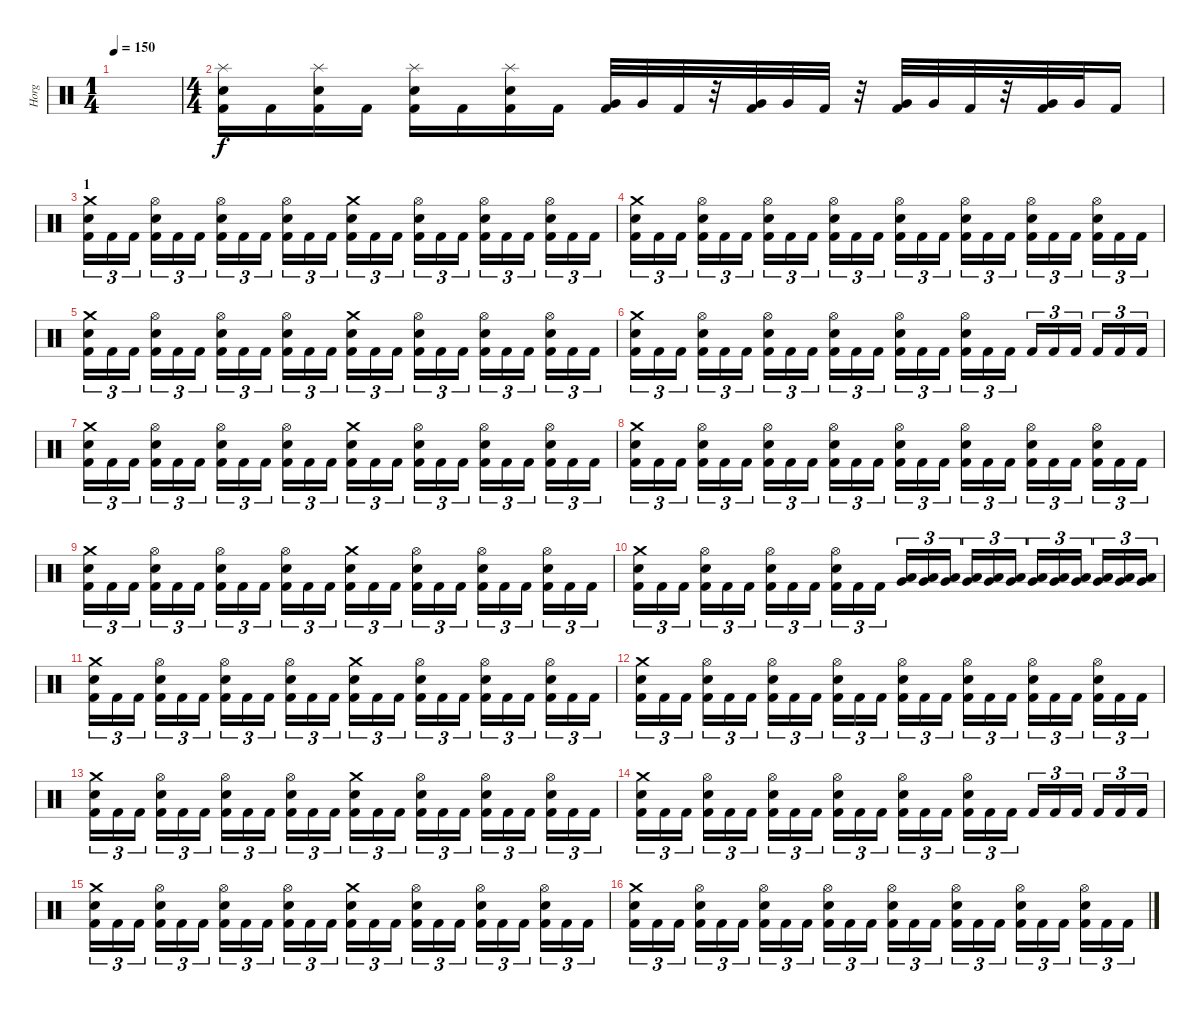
\track ("Horg" "Horg") {instrument percussion}
\staff {score}
\articulation defaults
\ts (1 4)
\tempo 150
\clef neutral
\ks c
|
\ts (4 4)
("Splash (hit)" "Snare (hit) 2" "Kick (hit) 2").16 "Kick (hit) 2".16 ("Splash (hit)" "Snare (hit) 2" "Kick (hit) 2").16 "Kick (hit) 2".16 ("Splash (hit)" "Snare (hit) 2" "Kick (hit) 2").16 "Kick (hit) 2".16 ("Splash (hit)" "Snare (hit) 2" "Kick (hit) 2").16 "Kick (hit) 2".16 ("Very Low Tom (hit)" "Kick (hit) 2").32 "Very Low Tom (hit)".32 "Kick (hit) 2".32 r.32 ("Very Low Tom (hit)" "Kick (hit) 2").32 "Very Low Tom (hit)".32 "Kick (hit) 2".32 r.32 ("Very Low Tom (hit)" "Kick (hit) 2").32 "Very Low Tom (hit)".32 "Kick (hit) 2".32 r.32 ("Very Low Tom (hit)" "Kick (hit) 2").32 "Very Low Tom (hit)".32 "Kick (hit) 2".16 |
\section ("" "1")
("Crash medium (hit)" "Snare (hit) 2" "Kick (hit) 2").16{tu (3 2)} "Kick (hit) 2".16{tu (3 2)} "Kick (hit) 2".16{tu (3 2)} ("Hi-Hat (open)" "Snare (hit) 2" "Kick (hit) 2").16{tu (3 2)} "Kick (hit) 2".16{tu (3 2)} "Kick (hit) 2".16{tu (3 2)} ("Hi-Hat (open)" "Snare (hit) 2" "Kick (hit) 2").16{tu (3 2)} "Kick (hit) 2".16{tu (3 2)} "Kick (hit) 2".16{tu (3 2)} ("Hi-Hat (open)" "Snare (hit) 2" "Kick (hit) 2").16{tu (3 2)} "Kick (hit) 2".16{tu (3 2)} "Kick (hit) 2".16{tu (3 2)} ("Crash medium (hit)" "Snare (hit) 2" "Kick (hit) 2").16{tu (3 2)} "Kick (hit) 2".16{tu (3 2)} "Kick (hit) 2".16{tu (3 2)} ("Hi-Hat (open)" "Snare (hit) 2" "Kick (hit) 2").16{tu (3 2)} "Kick (hit) 2".16{tu (3 2)} "Kick (hit) 2".16{tu (3 2)} ("Hi-Hat (open)" "Snare (hit) 2" "Kick (hit) 2").16{tu (3 2)} "Kick (hit) 2".16{tu (3 2)} "Kick (hit) 2".16{tu (3 2)} ("Hi-Hat (open)" "Snare (hit) 2" "Kick (hit) 2").16{tu (3 2)} "Kick (hit) 2".16{tu (3 2)} "Kick (hit) 2".16{tu (3 2)} |
("Crash medium (hit)" "Snare (hit) 2" "Kick (hit) 2").16{tu (3 2)} "Kick (hit) 2".16{tu (3 2)} "Kick (hit) 2".16{tu (3 2)} ("Hi-Hat (open)" "Snare (hit) 2" "Kick (hit) 2").16{tu (3 2)} "Kick (hit) 2".16{tu (3 2)} "Kick (hit) 2".16{tu (3 2)} ("Hi-Hat (open)" "Snare (hit) 2" "Kick (hit) 2").16{tu (3 2)} "Kick (hit) 2".16{tu (3 2)} "Kick (hit) 2".16{tu (3 2)} ("Hi-Hat (open)" "Snare (hit) 2" "Kick (hit) 2").16{tu (3 2)} "Kick (hit) 2".16{tu (3 2)} "Kick (hit) 2".16{tu (3 2)} ("Hi-Hat (open)" "Snare (hit) 2" "Kick (hit) 2").16{tu (3 2)} "Kick (hit) 2".16{tu (3 2)} "Kick (hit) 2".16{tu (3 2)} ("Hi-Hat (open)" "Snare (hit) 2" "Kick (hit) 2").16{tu (3 2)} "Kick (hit) 2".16{tu (3 2)} "Kick (hit) 2".16{tu (3 2)} ("Hi-Hat (open)" "Snare (hit) 2" "Kick (hit) 2").16{tu (3 2)} "Kick (hit) 2".16{tu (3 2)} "Kick (hit) 2".16{tu (3 2)} ("Hi-Hat (open)" "Snare (hit) 2" "Kick (hit) 2").16{tu (3 2)} "Kick (hit) 2".16{tu (3 2)} "Kick (hit) 2".16{tu (3 2)} |
("Crash medium (hit)" "Snare (hit) 2" "Kick (hit) 2").16{tu (3 2)} "Kick (hit) 2".16{tu (3 2)} "Kick (hit) 2".16{tu (3 2)} ("Hi-Hat (open)" "Snare (hit) 2" "Kick (hit) 2").16{tu (3 2)} "Kick (hit) 2".16{tu (3 2)} "Kick (hit) 2".16{tu (3 2)} ("Hi-Hat (open)" "Snare (hit) 2" "Kick (hit) 2").16{tu (3 2)} "Kick (hit) 2".16{tu (3 2)} "Kick (hit) 2".16{tu (3 2)} ("Hi-Hat (open)" "Snare (hit) 2" "Kick (hit) 2").16{tu (3 2)} "Kick (hit) 2".16{tu (3 2)} "Kick (hit) 2".16{tu (3 2)} ("Crash medium (hit)" "Snare (hit) 2" "Kick (hit) 2").16{tu (3 2)} "Kick (hit) 2".16{tu (3 2)} "Kick (hit) 2".16{tu (3 2)} ("Hi-Hat (open)" "Snare (hit) 2" "Kick (hit) 2").16{tu (3 2)} "Kick (hit) 2".16{tu (3 2)} "Kick (hit) 2".16{tu (3 2)} ("Hi-Hat (open)" "Snare (hit) 2" "Kick (hit) 2").16{tu (3 2)} "Kick (hit) 2".16{tu (3 2)} "Kick (hit) 2".16{tu (3 2)} ("Hi-Hat (open)" "Snare (hit) 2" "Kick (hit) 2").16{tu (3 2)} "Kick (hit) 2".16{tu (3 2)} "Kick (hit) 2".16{tu (3 2)} |
("Crash medium (hit)" "Snare (hit) 2" "Kick (hit) 2").16{tu (3 2)} "Kick (hit) 2".16{tu (3 2)} "Kick (hit) 2".16{tu (3 2)} ("Hi-Hat (open)" "Snare (hit) 2" "Kick (hit) 2").16{tu (3 2)} "Kick (hit) 2".16{tu (3 2)} "Kick (hit) 2".16{tu (3 2)} ("Hi-Hat (open)" "Snare (hit) 2" "Kick (hit) 2").16{tu (3 2)} "Kick (hit) 2".16{tu (3 2)} "Kick (hit) 2".16{tu (3 2)} ("Hi-Hat (open)" "Snare (hit) 2" "Kick (hit) 2").16{tu (3 2)} "Kick (hit) 2".16{tu (3 2)} "Kick (hit) 2".16{tu (3 2)} ("Hi-Hat (open)" "Snare (hit) 2" "Kick (hit) 2").16{tu (3 2)} "Kick (hit) 2".16{tu (3 2)} "Kick (hit) 2".16{tu (3 2)} ("Hi-Hat (open)" "Snare (hit) 2" "Kick (hit) 2").16{tu (3 2)} "Kick (hit) 2".16{tu (3 2)} "Kick (hit) 2".16{tu (3 2)} "Kick (hit) 2".16{tu (3 2)} "Kick (hit) 2".16{tu (3 2)} "Kick (hit) 2".16{tu (3 2)} "Kick (hit) 2".16{tu (3 2)} "Kick (hit) 2".16{tu (3 2)} "Kick (hit) 2".16{tu (3 2)} |
("Crash medium (hit)" "Snare (hit) 2" "Kick (hit) 2").16{tu (3 2)} "Kick (hit) 2".16{tu (3 2)} "Kick (hit) 2".16{tu (3 2)} ("Hi-Hat (open)" "Snare (hit) 2" "Kick (hit) 2").16{tu (3 2)} "Kick (hit) 2".16{tu (3 2)} "Kick (hit) 2".16{tu (3 2)} ("Hi-Hat (open)" "Snare (hit) 2" "Kick (hit) 2").16{tu (3 2)} "Kick (hit) 2".16{tu (3 2)} "Kick (hit) 2".16{tu (3 2)} ("Hi-Hat (open)" "Snare (hit) 2" "Kick (hit) 2").16{tu (3 2)} "Kick (hit) 2".16{tu (3 2)} "Kick (hit) 2".16{tu (3 2)} ("Crash medium (hit)" "Snare (hit) 2" "Kick (hit) 2").16{tu (3 2)} "Kick (hit) 2".16{tu (3 2)} "Kick (hit) 2".16{tu (3 2)} ("Hi-Hat (open)" "Snare (hit) 2" "Kick (hit) 2").16{tu (3 2)} "Kick (hit) 2".16{tu (3 2)} "Kick (hit) 2".16{tu (3 2)} ("Hi-Hat (open)" "Snare (hit) 2" "Kick (hit) 2").16{tu (3 2)} "Kick (hit) 2".16{tu (3 2)} "Kick (hit) 2".16{tu (3 2)} ("Hi-Hat (open)" "Snare (hit) 2" "Kick (hit) 2").16{tu (3 2)} "Kick (hit) 2".16{tu (3 2)} "Kick (hit) 2".16{tu (3 2)} |
("Crash medium (hit)" "Snare (hit) 2" "Kick (hit) 2").16{tu (3 2)} "Kick (hit) 2".16{tu (3 2)} "Kick (hit) 2".16{tu (3 2)} ("Hi-Hat (open)" "Snare (hit) 2" "Kick (hit) 2").16{tu (3 2)} "Kick (hit) 2".16{tu (3 2)} "Kick (hit) 2".16{tu (3 2)} ("Hi-Hat (open)" "Snare (hit) 2" "Kick (hit) 2").16{tu (3 2)} "Kick (hit) 2".16{tu (3 2)} "Kick (hit) 2".16{tu (3 2)} ("Hi-Hat (open)" "Snare (hit) 2" "Kick (hit) 2").16{tu (3 2)} "Kick (hit) 2".16{tu (3 2)} "Kick (hit) 2".16{tu (3 2)} ("Hi-Hat (open)" "Snare (hit) 2" "Kick (hit) 2").16{tu (3 2)} "Kick (hit) 2".16{tu (3 2)} "Kick (hit) 2".16{tu (3 2)} ("Hi-Hat (open)" "Snare (hit) 2" "Kick (hit) 2").16{tu (3 2)} "Kick (hit) 2".16{tu (3 2)} "Kick (hit) 2".16{tu (3 2)} ("Hi-Hat (open)" "Snare (hit) 2" "Kick (hit) 2").16{tu (3 2)} "Kick (hit) 2".16{tu (3 2)} "Kick (hit) 2".16{tu (3 2)} ("Hi-Hat (open)" "Snare (hit) 2" "Kick (hit) 2").16{tu (3 2)} "Kick (hit) 2".16{tu (3 2)} "Kick (hit) 2".16{tu (3 2)} |
("Crash medium (hit)" "Snare (hit) 2" "Kick (hit) 2").16{tu (3 2)} "Kick (hit) 2".16{tu (3 2)} "Kick (hit) 2".16{tu (3 2)} ("Hi-Hat (open)" "Snare (hit) 2" "Kick (hit) 2").16{tu (3 2)} "Kick (hit) 2".16{tu (3 2)} "Kick (hit) 2".16{tu (3 2)} ("Hi-Hat (open)" "Snare (hit) 2" "Kick (hit) 2").16{tu (3 2)} "Kick (hit) 2".16{tu (3 2)} "Kick (hit) 2".16{tu (3 2)} ("Hi-Hat (open)" "Snare (hit) 2" "Kick (hit) 2").16{tu (3 2)} "Kick (hit) 2".16{tu (3 2)} "Kick (hit) 2".16{tu (3 2)} ("Crash medium (hit)" "Snare (hit) 2" "Kick (hit) 2").16{tu (3 2)} "Kick (hit) 2".16{tu (3 2)} "Kick (hit) 2".16{tu (3 2)} ("Hi-Hat (open)" "Snare (hit) 2" "Kick (hit) 2").16{tu (3 2)} "Kick (hit) 2".16{tu (3 2)} "Kick (hit) 2".16{tu (3 2)} ("Hi-Hat (open)" "Snare (hit) 2" "Kick (hit) 2").16{tu (3 2)} "Kick (hit) 2".16{tu (3 2)} "Kick (hit) 2".16{tu (3 2)} ("Hi-Hat (open)" "Snare (hit) 2" "Kick (hit) 2").16{tu (3 2)} "Kick (hit) 2".16{tu (3 2)} "Kick (hit) 2".16{tu (3 2)} |
("Crash medium (hit)" "Snare (hit) 2" "Kick (hit) 2").16{tu (3 2)} "Kick (hit) 2".16{tu (3 2)} "Kick (hit) 2".16{tu (3 2)} ("Hi-Hat (open)" "Snare (hit) 2" "Kick (hit) 2").16{tu (3 2)} "Kick (hit) 2".16{tu (3 2)} "Kick (hit) 2".16{tu (3 2)} ("Hi-Hat (open)" "Snare (hit) 2" "Kick (hit) 2").16{tu (3 2)} "Kick (hit) 2".16{tu (3 2)} "Kick (hit) 2".16{tu (3 2)} ("Hi-Hat (open)" "Snare (hit) 2" "Kick (hit) 2").16{tu (3 2)} "Kick (hit) 2".16{tu (3 2)} "Kick (hit) 2".16{tu (3 2)} ("Low Tom (hit)" "Very Low Tom (hit)").16{tu (3 2)} ("Low Tom (hit)" "Very Low Tom (hit)").16{tu (3 2)} ("Low Tom (hit)" "Very Low Tom (hit)").16{tu (3 2)} ("Low Tom (hit)" "Very Low Tom (hit)").16{tu (3 2)} ("Low Tom (hit)" "Very Low Tom (hit)").16{tu (3 2)} ("Low Tom (hit)" "Very Low Tom (hit)").16{tu (3 2)} ("Very Low Tom (hit)" "Low Floor Tom (hit)").16{tu (3 2)} ("Very Low Tom (hit)" "Low Floor Tom (hit)").16{tu (3 2)} ("Very Low Tom (hit)" "Low Floor Tom (hit)").16{tu (3 2)} ("Very Low Tom (hit)" "Low Floor Tom (hit)").16{tu (3 2)} ("Very Low Tom (hit)" "Low Floor Tom (hit)").16{tu (3 2)} ("Very Low Tom (hit)" "Low Floor Tom (hit)").16{tu (3 2)} |
("Crash medium (hit)" "Snare (hit) 2" "Kick (hit) 2").16{tu (3 2)} "Kick (hit) 2".16{tu (3 2)} "Kick (hit) 2".16{tu (3 2)} ("Hi-Hat (open)" "Snare (hit) 2" "Kick (hit) 2").16{tu (3 2)} "Kick (hit) 2".16{tu (3 2)} "Kick (hit) 2".16{tu (3 2)} ("Hi-Hat (open)" "Snare (hit) 2" "Kick (hit) 2").16{tu (3 2)} "Kick (hit) 2".16{tu (3 2)} "Kick (hit) 2".16{tu (3 2)} ("Hi-Hat (open)" "Snare (hit) 2" "Kick (hit) 2").16{tu (3 2)} "Kick (hit) 2".16{tu (3 2)} "Kick (hit) 2".16{tu (3 2)} ("Crash medium (hit)" "Snare (hit) 2" "Kick (hit) 2").16{tu (3 2)} "Kick (hit) 2".16{tu (3 2)} "Kick (hit) 2".16{tu (3 2)} ("Hi-Hat (open)" "Snare (hit) 2" "Kick (hit) 2").16{tu (3 2)} "Kick (hit) 2".16{tu (3 2)} "Kick (hit) 2".16{tu (3 2)} ("Hi-Hat (open)" "Snare (hit) 2" "Kick (hit) 2").16{tu (3 2)} "Kick (hit) 2".16{tu (3 2)} "Kick (hit) 2".16{tu (3 2)} ("Hi-Hat (open)" "Snare (hit) 2" "Kick (hit) 2").16{tu (3 2)} "Kick (hit) 2".16{tu (3 2)} "Kick (hit) 2".16{tu (3 2)} |
("Crash medium (hit)" "Snare (hit) 2" "Kick (hit) 2").16{tu (3 2)} "Kick (hit) 2".16{tu (3 2)} "Kick (hit) 2".16{tu (3 2)} ("Hi-Hat (open)" "Snare (hit) 2" "Kick (hit) 2").16{tu (3 2)} "Kick (hit) 2".16{tu (3 2)} "Kick (hit) 2".16{tu (3 2)} ("Hi-Hat (open)" "Snare (hit) 2" "Kick (hit) 2").16{tu (3 2)} "Kick (hit) 2".16{tu (3 2)} "Kick (hit) 2".16{tu (3 2)} ("Hi-Hat (open)" "Snare (hit) 2" "Kick (hit) 2").16{tu (3 2)} "Kick (hit) 2".16{tu (3 2)} "Kick (hit) 2".16{tu (3 2)} ("Hi-Hat (open)" "Snare (hit) 2" "Kick (hit) 2").16{tu (3 2)} "Kick (hit) 2".16{tu (3 2)} "Kick (hit) 2".16{tu (3 2)} ("Hi-Hat (open)" "Snare (hit) 2" "Kick (hit) 2").16{tu (3 2)} "Kick (hit) 2".16{tu (3 2)} "Kick (hit) 2".16{tu (3 2)} ("Hi-Hat (open)" "Snare (hit) 2" "Kick (hit) 2").16{tu (3 2)} "Kick (hit) 2".16{tu (3 2)} "Kick (hit) 2".16{tu (3 2)} ("Hi-Hat (open)" "Snare (hit) 2" "Kick (hit) 2").16{tu (3 2)} "Kick (hit) 2".16{tu (3 2)} "Kick (hit) 2".16{tu (3 2)} |
("Crash medium (hit)" "Snare (hit) 2" "Kick (hit) 2").16{tu (3 2)} "Kick (hit) 2".16{tu (3 2)} "Kick (hit) 2".16{tu (3 2)} ("Hi-Hat (open)" "Snare (hit) 2" "Kick (hit) 2").16{tu (3 2)} "Kick (hit) 2".16{tu (3 2)} "Kick (hit) 2".16{tu (3 2)} ("Hi-Hat (open)" "Snare (hit) 2" "Kick (hit) 2").16{tu (3 2)} "Kick (hit) 2".16{tu (3 2)} "Kick (hit) 2".16{tu (3 2)} ("Hi-Hat (open)" "Snare (hit) 2" "Kick (hit) 2").16{tu (3 2)} "Kick (hit) 2".16{tu (3 2)} "Kick (hit) 2".16{tu (3 2)} ("Crash medium (hit)" "Snare (hit) 2" "Kick (hit) 2").16{tu (3 2)} "Kick (hit) 2".16{tu (3 2)} "Kick (hit) 2".16{tu (3 2)} ("Hi-Hat (open)" "Snare (hit) 2" "Kick (hit) 2").16{tu (3 2)} "Kick (hit) 2".16{tu (3 2)} "Kick (hit) 2".16{tu (3 2)} ("Hi-Hat (open)" "Snare (hit) 2" "Kick (hit) 2").16{tu (3 2)} "Kick (hit) 2".16{tu (3 2)} "Kick (hit) 2".16{tu (3 2)} ("Hi-Hat (open)" "Snare (hit) 2" "Kick (hit) 2").16{tu (3 2)} "Kick (hit) 2".16{tu (3 2)} "Kick (hit) 2".16{tu (3 2)} |
("Crash medium (hit)" "Snare (hit) 2" "Kick (hit) 2").16{tu (3 2)} "Kick (hit) 2".16{tu (3 2)} "Kick (hit) 2".16{tu (3 2)} ("Hi-Hat (open)" "Snare (hit) 2" "Kick (hit) 2").16{tu (3 2)} "Kick (hit) 2".16{tu (3 2)} "Kick (hit) 2".16{tu (3 2)} ("Hi-Hat (open)" "Snare (hit) 2" "Kick (hit) 2").16{tu (3 2)} "Kick (hit) 2".16{tu (3 2)} "Kick (hit) 2".16{tu (3 2)} ("Hi-Hat (open)" "Snare (hit) 2" "Kick (hit) 2").16{tu (3 2)} "Kick (hit) 2".16{tu (3 2)} "Kick (hit) 2".16{tu (3 2)} ("Hi-Hat (open)" "Snare (hit) 2" "Kick (hit) 2").16{tu (3 2)} "Kick (hit) 2".16{tu (3 2)} "Kick (hit) 2".16{tu (3 2)} ("Hi-Hat (open)" "Snare (hit) 2" "Kick (hit) 2").16{tu (3 2)} "Kick (hit) 2".16{tu (3 2)} "Kick (hit) 2".16{tu (3 2)} "Kick (hit) 2".16{tu (3 2)} "Kick (hit) 2".16{tu (3 2)} "Kick (hit) 2".16{tu (3 2)} "Kick (hit) 2".16{tu (3 2)} "Kick (hit) 2".16{tu (3 2)} "Kick (hit) 2".16{tu (3 2)} |
("Crash medium (hit)" "Snare (hit) 2" "Kick (hit) 2").16{tu (3 2)} "Kick (hit) 2".16{tu (3 2)} "Kick (hit) 2".16{tu (3 2)} ("Hi-Hat (open)" "Snare (hit) 2" "Kick (hit) 2").16{tu (3 2)} "Kick (hit) 2".16{tu (3 2)} "Kick (hit) 2".16{tu (3 2)} ("Hi-Hat (open)" "Snare (hit) 2" "Kick (hit) 2").16{tu (3 2)} "Kick (hit) 2".16{tu (3 2)} "Kick (hit) 2".16{tu (3 2)} ("Hi-Hat (open)" "Snare (hit) 2" "Kick (hit) 2").16{tu (3 2)} "Kick (hit) 2".16{tu (3 2)} "Kick (hit) 2".16{tu (3 2)} ("Crash medium (hit)" "Snare (hit) 2" "Kick (hit) 2").16{tu (3 2)} "Kick (hit) 2".16{tu (3 2)} "Kick (hit) 2".16{tu (3 2)} ("Hi-Hat (open)" "Snare (hit) 2" "Kick (hit) 2").16{tu (3 2)} "Kick (hit) 2".16{tu (3 2)} "Kick (hit) 2".16{tu (3 2)} ("Hi-Hat (open)" "Snare (hit) 2" "Kick (hit) 2").16{tu (3 2)} "Kick (hit) 2".16{tu (3 2)} "Kick (hit) 2".16{tu (3 2)} ("Hi-Hat (open)" "Snare (hit) 2" "Kick (hit) 2").16{tu (3 2)} "Kick (hit) 2".16{tu (3 2)} "Kick (hit) 2".16{tu (3 2)} |
("Crash medium (hit)" "Snare (hit) 2" "Kick (hit) 2").16{tu (3 2)} "Kick (hit) 2".16{tu (3 2)} "Kick (hit) 2".16{tu (3 2)} ("Hi-Hat (open)" "Snare (hit) 2" "Kick (hit) 2").16{tu (3 2)} "Kick (hit) 2".16{tu (3 2)} "Kick (hit) 2".16{tu (3 2)} ("Hi-Hat (open)" "Snare (hit) 2" "Kick (hit) 2").16{tu (3 2)} "Kick (hit) 2".16{tu (3 2)} "Kick (hit) 2".16{tu (3 2)} ("Hi-Hat (open)" "Snare (hit) 2" "Kick (hit) 2").16{tu (3 2)} "Kick (hit) 2".16{tu (3 2)} "Kick (hit) 2".16{tu (3 2)} ("Hi-Hat (open)" "Snare (hit) 2" "Kick (hit) 2").16{tu (3 2)} "Kick (hit) 2".16{tu (3 2)} "Kick (hit) 2".16{tu (3 2)} ("Hi-Hat (open)" "Snare (hit) 2" "Kick (hit) 2").16{tu (3 2)} "Kick (hit) 2".16{tu (3 2)} "Kick (hit) 2".16{tu (3 2)} ("Hi-Hat (open)" "Snare (hit) 2" "Kick (hit) 2").16{tu (3 2)} "Kick (hit) 2".16{tu (3 2)} "Kick (hit) 2".16{tu (3 2)} ("Hi-Hat (open)" "Snare (hit) 2" "Kick (hit) 2").16{tu (3 2)} "Kick (hit) 2".16{tu (3 2)} "Kick (hit) 2".16{tu (3 2)}
